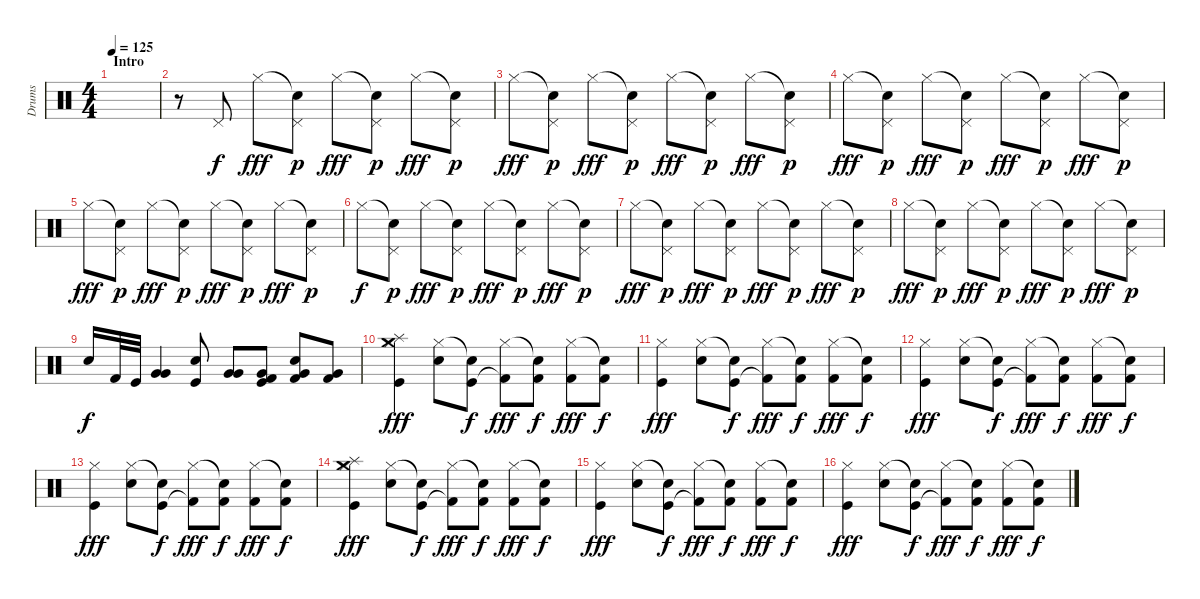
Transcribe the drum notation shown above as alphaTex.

\track ("Drums" "Drums") {instrument percussion}
\staff {score}
\articulation defaults
\ts (4 4)
\section ("" "Intro")
\tempo 125
\clef neutral
\ks c
|
r.8 "Pedal Hi-Hat (hit)".8 "Hi-Hat (closed)".8{dy fff} ("Snare (hit)"{t} "Pedal Hi-Hat (hit)").8{dy p} "Hi-Hat (closed)".8{dy fff} ("Snare (hit)"{t} "Pedal Hi-Hat (hit)").8{dy p} "Hi-Hat (closed)".8{dy fff} ("Snare (hit)"{t} "Pedal Hi-Hat (hit)").8{dy p} |
"Hi-Hat (closed)".8{dy fff} ("Snare (hit)"{t} "Pedal Hi-Hat (hit)").8{dy p} "Hi-Hat (closed)".8{dy fff} ("Snare (hit)"{t} "Pedal Hi-Hat (hit)").8{dy p} "Hi-Hat (closed)".8{dy fff} ("Snare (hit)"{t} "Pedal Hi-Hat (hit)").8{dy p} "Hi-Hat (closed)".8{dy fff} ("Snare (hit)"{t} "Pedal Hi-Hat (hit)").8{dy p} |
"Hi-Hat (closed)".8{dy fff} ("Snare (hit)"{t} "Pedal Hi-Hat (hit)").8{dy p} "Hi-Hat (closed)".8{dy fff} ("Snare (hit)"{t} "Pedal Hi-Hat (hit)").8{dy p} "Hi-Hat (closed)".8{dy fff} ("Snare (hit)"{t} "Pedal Hi-Hat (hit)").8{dy p} "Hi-Hat (closed)".8{dy fff} ("Snare (hit)"{t} "Pedal Hi-Hat (hit)").8{dy p} |
"Hi-Hat (closed)".8{dy fff} ("Snare (hit)"{t} "Pedal Hi-Hat (hit)").8{dy p} "Hi-Hat (closed)".8{dy fff} ("Snare (hit)"{t} "Pedal Hi-Hat (hit)").8{dy p} "Hi-Hat (closed)".8{dy fff} ("Snare (hit)"{t} "Pedal Hi-Hat (hit)").8{dy p} "Hi-Hat (closed)".8{dy fff} ("Snare (hit)"{t} "Pedal Hi-Hat (hit)").8{dy p} |
"Hi-Hat (closed)".8{dy f} ("Snare (hit)"{t} "Pedal Hi-Hat (hit)").8{dy p} "Hi-Hat (closed)".8{dy fff} ("Snare (hit)"{t} "Pedal Hi-Hat (hit)").8{dy p} "Hi-Hat (closed)".8{dy fff} ("Snare (hit)"{t} "Pedal Hi-Hat (hit)").8{dy p} "Hi-Hat (closed)".8{dy fff} ("Snare (hit)"{t} "Pedal Hi-Hat (hit)").8{dy p} |
"Hi-Hat (closed)".8{dy fff} ("Snare (hit)"{t} "Pedal Hi-Hat (hit)").8{dy p} "Hi-Hat (closed)".8{dy fff} ("Snare (hit)"{t} "Pedal Hi-Hat (hit)").8{dy p} "Hi-Hat (closed)".8{dy fff} ("Snare (hit)"{t} "Pedal Hi-Hat (hit)").8{dy p} "Hi-Hat (closed)".8{dy fff} ("Snare (hit)"{t} "Pedal Hi-Hat (hit)").8{dy p} |
"Hi-Hat (closed)".8{dy fff} ("Snare (hit)"{t} "Pedal Hi-Hat (hit)").8{dy p} "Hi-Hat (closed)".8{dy fff} ("Snare (hit)"{t} "Pedal Hi-Hat (hit)").8{dy p} "Hi-Hat (closed)".8{dy fff} ("Snare (hit)"{t} "Pedal Hi-Hat (hit)").8{dy p} "Hi-Hat (closed)".8{dy fff} ("Snare (hit)"{t} "Pedal Hi-Hat (hit)").8{dy p} |
"Snare (hit) 2".16{dy f} "Kick (hit) 2".32 "Kick (hit)".32 ("Very Low Tom (hit)" "Very Low Tom (hit)").4 ("Kick (hit)" "Snare (hit) 2").8 ("Very Low Tom (hit)" "Very Low Tom (hit)").8 ("Very Low Tom (hit)" "Kick (hit)" "Kick (hit) 2").8 ("Very Low Tom (hit)" "Snare (hit) 2" "Kick (hit) 2").8 ("Very Low Tom (hit)" "Kick (hit) 2").8 |
("Crash medium (hit)" "Splash (hit)" "Hi-Hat (closed)" "Kick (hit)").4{dy fff} ("Hi-Hat (closed)" "Electric Snare (hit)").8 ("Snare (hit)"{t} "Kick (hit)").8{dy f} ("Hi-Hat (closed)" "Kick (hit) 2"{t}).8{dy fff} ("Snare (hit)"{t} "Kick (hit) 2").8{dy f} ("Hi-Hat (closed)" "Kick (hit) 2").8{dy fff} ("Snare (hit)"{t} "Kick (hit) 2").8{dy f} |
("Hi-Hat (closed)" "Kick (hit)").4{dy fff} ("Hi-Hat (closed)" "Electric Snare (hit)").8 ("Snare (hit)"{t} "Kick (hit)").8{dy f} ("Hi-Hat (closed)" "Kick (hit) 2"{t}).8{dy fff} ("Snare (hit)"{t} "Kick (hit) 2").8{dy f} ("Hi-Hat (closed)" "Kick (hit) 2").8{dy fff} ("Snare (hit)"{t} "Kick (hit) 2").8{dy f} |
("Hi-Hat (closed)" "Kick (hit)").4{dy fff} ("Hi-Hat (closed)" "Electric Snare (hit)").8 ("Snare (hit)"{t} "Kick (hit)").8{dy f} ("Hi-Hat (closed)" "Kick (hit) 2"{t}).8{dy fff} ("Snare (hit)"{t} "Kick (hit) 2").8{dy f} ("Hi-Hat (closed)" "Kick (hit) 2").8{dy fff} ("Snare (hit)"{t} "Kick (hit) 2").8{dy f} |
("Hi-Hat (closed)" "Kick (hit)").4{dy fff} ("Hi-Hat (closed)" "Electric Snare (hit)").8 ("Snare (hit)"{t} "Kick (hit)").8{dy f} ("Hi-Hat (closed)" "Kick (hit) 2"{t}).8{dy fff} ("Snare (hit)"{t} "Kick (hit) 2").8{dy f} ("Hi-Hat (closed)" "Kick (hit) 2").8{dy fff} ("Snare (hit)"{t} "Kick (hit) 2").8{dy f} |
("Crash medium (hit)" "Splash (hit)" "Hi-Hat (closed)" "Kick (hit)").4{dy fff} ("Hi-Hat (closed)" "Electric Snare (hit)").8 ("Snare (hit)"{t} "Kick (hit)").8{dy f} ("Hi-Hat (closed)" "Kick (hit) 2"{t}).8{dy fff} ("Snare (hit)"{t} "Kick (hit) 2").8{dy f} ("Hi-Hat (closed)" "Kick (hit) 2").8{dy fff} ("Snare (hit)"{t} "Kick (hit) 2").8{dy f} |
("Hi-Hat (closed)" "Kick (hit)").4{dy fff} ("Hi-Hat (closed)" "Electric Snare (hit)").8 ("Snare (hit)"{t} "Kick (hit)").8{dy f} ("Hi-Hat (closed)" "Kick (hit) 2"{t}).8{dy fff} ("Snare (hit)"{t} "Kick (hit) 2").8{dy f} ("Hi-Hat (closed)" "Kick (hit) 2").8{dy fff} ("Snare (hit)"{t} "Kick (hit) 2").8{dy f} |
("Hi-Hat (closed)" "Kick (hit)").4{dy fff} ("Hi-Hat (closed)" "Electric Snare (hit)").8 ("Snare (hit)"{t} "Kick (hit)").8{dy f} ("Hi-Hat (closed)" "Kick (hit) 2"{t}).8{dy fff} ("Snare (hit)"{t} "Kick (hit) 2").8{dy f} ("Hi-Hat (closed)" "Kick (hit) 2").8{dy fff} ("Snare (hit)"{t} "Kick (hit) 2").8{dy f}
